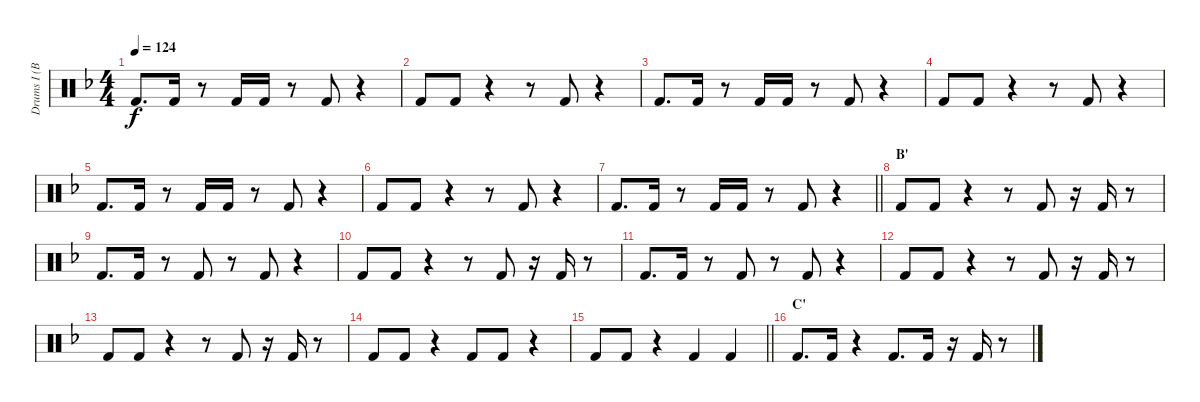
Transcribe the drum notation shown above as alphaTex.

\track ("Drums I (Bass Drums) (RUKA)" "Drums I (B") {instrument percussion}
\staff {score}
\articulation defaults
\ts (4 4)
\tempo 124
\clef neutral
\ks f "Kick (hit) 2".8{d dy f} "Kick (hit) 2".16
r.8 "Kick (hit) 2".16 "Kick (hit) 2".16 r.8 "Kick (hit) 2".8 r.4 |
"Kick (hit) 2".8 "Kick (hit) 2".8 r.4 r.8 "Kick (hit) 2".8 r.4 |
"Kick (hit) 2".8{d} "Kick (hit) 2".16 r.8 "Kick (hit) 2".16 "Kick (hit) 2".16 r.8 "Kick (hit) 2".8 r.4 |
"Kick (hit) 2".8 "Kick (hit) 2".8 r.4 r.8 "Kick (hit) 2".8 r.4 |
"Kick (hit) 2".8{d} "Kick (hit) 2".16 r.8 "Kick (hit) 2".16 "Kick (hit) 2".16 r.8 "Kick (hit) 2".8 r.4 |
"Kick (hit) 2".8 "Kick (hit) 2".8 r.4 r.8 "Kick (hit) 2".8 r.4 |
\barLineRight lightlight "Kick (hit) 2".8{d} "Kick (hit) 2".16
r.8 "Kick (hit) 2".16 "Kick (hit) 2".16 r.8 "Kick (hit) 2".8 r.4 |
\section ("" "B'")
"Kick (hit) 2".8 "Kick (hit) 2".8 r.4 r.8 "Kick (hit) 2".8 r.16 "Kick (hit) 2".16 r.8 |
"Kick (hit) 2".8{d} "Kick (hit) 2".16 r.8 "Kick (hit) 2".8 r.8 "Kick (hit) 2".8 r.4 |
"Kick (hit) 2".8 "Kick (hit) 2".8 r.4 r.8 "Kick (hit) 2".8 r.16 "Kick (hit) 2".16 r.8 |
"Kick (hit) 2".8{d} "Kick (hit) 2".16 r.8 "Kick (hit) 2".8 r.8 "Kick (hit) 2".8 r.4 |
"Kick (hit) 2".8 "Kick (hit) 2".8 r.4 r.8 "Kick (hit) 2".8 r.16 "Kick (hit) 2".16 r.8 |
"Kick (hit) 2".8 "Kick (hit) 2".8 r.4 r.8 "Kick (hit) 2".8 r.16 "Kick (hit) 2".16 r.8 |
"Kick (hit) 2".8 "Kick (hit) 2".8 r.4 "Kick (hit) 2".8 "Kick (hit) 2".8 r.4 |
\barLineRight lightlight "Kick (hit) 2".8 "Kick (hit) 2".8
r.4 "Kick (hit) 2".4 "Kick (hit) 2".4 |
\section ("" "C'")
"Kick (hit) 2".8{d} "Kick (hit) 2".16 r.4 "Kick (hit) 2".8{d} "Kick (hit) 2".16 r.16 "Kick (hit) 2".16 r.8
